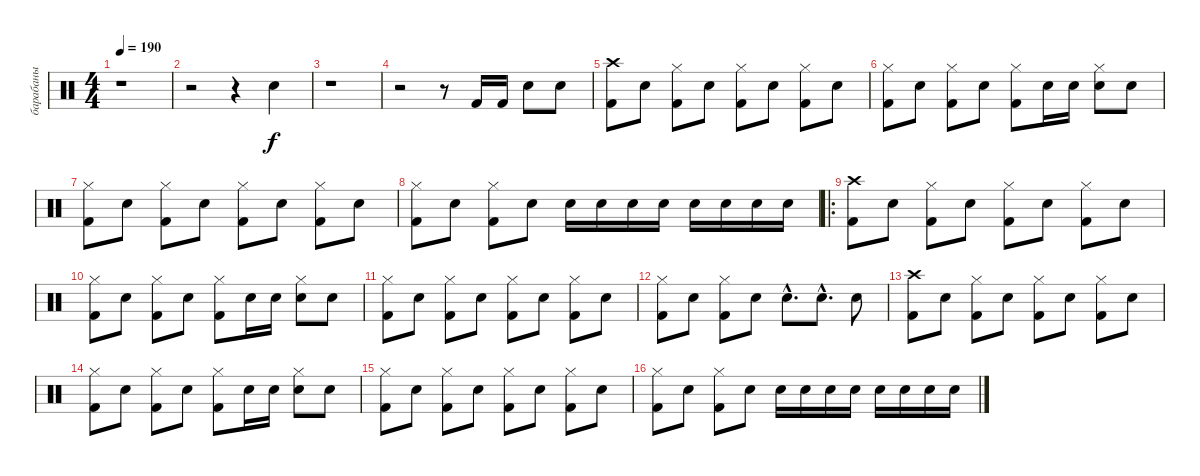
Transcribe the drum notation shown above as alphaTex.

\track ("барабаны" "барабаны") {instrument percussion}
\staff {score}
\articulation defaults
\ts (4 4)
\tempo 190
\clef neutral
\ks c
r.1{dy f} |
r.2 r.4 "Electric Snare (hit)".4 |
r.1 |
r.2 r.8 "Kick (hit) 2".16 "Kick (hit) 2".16 "Electric Snare (hit)".8 "Snare (hit) 2".8 |
("Crash high (hit)" "Kick (hit) 2").8 "Snare (hit) 2".8 ("Hi-Hat (closed)" "Kick (hit) 2").8 "Snare (hit) 2".8 ("Hi-Hat (closed)" "Kick (hit) 2").8 "Snare (hit) 2".8 ("Hi-Hat (closed)" "Kick (hit) 2").8 "Snare (hit) 2".8 |
("Hi-Hat (closed)" "Kick (hit) 2").8 "Snare (hit) 2".8 ("Hi-Hat (closed)" "Kick (hit) 2").8 "Snare (hit) 2".8 ("Hi-Hat (closed)" "Kick (hit) 2").8 "Snare (hit) 2".16 "Snare (hit) 2".16 ("Hi-Hat (closed)" "Snare (hit) 2").8 "Snare (hit) 2".8 |
("Hi-Hat (closed)" "Kick (hit) 2").8 "Snare (hit) 2".8 ("Hi-Hat (closed)" "Kick (hit) 2").8 "Snare (hit) 2".8 ("Hi-Hat (closed)" "Kick (hit) 2").8 "Snare (hit) 2".8 ("Hi-Hat (closed)" "Kick (hit) 2").8 "Snare (hit) 2".8 |
("Hi-Hat (closed)" "Kick (hit) 2").8 "Snare (hit) 2".8 ("Hi-Hat (closed)" "Kick (hit) 2").8 "Snare (hit) 2".8 "Snare (hit) 2".16 "Snare (hit) 2".16 "Snare (hit) 2".16 "Snare (hit) 2".16 "Snare (hit) 2".16 "Electric Snare (hit)".16 "Electric Snare (hit)".16 "Electric Snare (hit)".16 |
\ro
("Crash high (hit)" "Kick (hit) 2").8 "Snare (hit) 2".8 ("Hi-Hat (closed)" "Kick (hit) 2").8 "Snare (hit) 2".8 ("Hi-Hat (closed)" "Kick (hit) 2").8 "Snare (hit) 2".8 ("Hi-Hat (closed)" "Kick (hit) 2").8 "Snare (hit) 2".8 |
("Hi-Hat (closed)" "Kick (hit) 2").8 "Snare (hit) 2".8 ("Hi-Hat (closed)" "Kick (hit) 2").8 "Snare (hit) 2".8 ("Hi-Hat (closed)" "Kick (hit) 2").8 "Snare (hit) 2".16 "Snare (hit) 2".16 ("Hi-Hat (closed)" "Snare (hit) 2").8 "Snare (hit) 2".8 |
("Hi-Hat (closed)" "Kick (hit) 2").8 "Snare (hit) 2".8 ("Hi-Hat (closed)" "Kick (hit) 2").8 "Snare (hit) 2".8 ("Hi-Hat (closed)" "Kick (hit) 2").8 "Snare (hit) 2".8 ("Hi-Hat (closed)" "Kick (hit) 2").8 "Snare (hit) 2".8 |
("Hi-Hat (closed)" "Kick (hit) 2").8 "Snare (hit) 2".8 ("Hi-Hat (closed)" "Kick (hit) 2").8 "Snare (hit) 2".8 "Snare (hit) 2"{hac}.8{d} "Electric Snare (hit)"{hac}.8{d} "Electric Snare (hit)".8 |
("Crash high (hit)" "Kick (hit) 2").8 "Snare (hit) 2".8 ("Hi-Hat (closed)" "Kick (hit) 2").8 "Snare (hit) 2".8 ("Hi-Hat (closed)" "Kick (hit) 2").8 "Snare (hit) 2".8 ("Hi-Hat (closed)" "Kick (hit) 2").8 "Snare (hit) 2".8 |
("Hi-Hat (closed)" "Kick (hit) 2").8 "Snare (hit) 2".8 ("Hi-Hat (closed)" "Kick (hit) 2").8 "Snare (hit) 2".8 ("Hi-Hat (closed)" "Kick (hit) 2").8 "Snare (hit) 2".16 "Snare (hit) 2".16 ("Hi-Hat (closed)" "Snare (hit) 2").8 "Snare (hit) 2".8 |
("Hi-Hat (closed)" "Kick (hit) 2").8 "Snare (hit) 2".8 ("Hi-Hat (closed)" "Kick (hit) 2").8 "Snare (hit) 2".8 ("Hi-Hat (closed)" "Kick (hit) 2").8 "Snare (hit) 2".8 ("Hi-Hat (closed)" "Kick (hit) 2").8 "Snare (hit) 2".8 |
("Hi-Hat (closed)" "Kick (hit) 2").8 "Snare (hit) 2".8 ("Hi-Hat (closed)" "Kick (hit) 2").8 "Snare (hit) 2".8 "Snare (hit) 2".16 "Snare (hit) 2".16 "Snare (hit) 2".16 "Snare (hit) 2".16 "Snare (hit) 2".16 "Electric Snare (hit)".16 "Electric Snare (hit)".16 "Electric Snare (hit)".16
